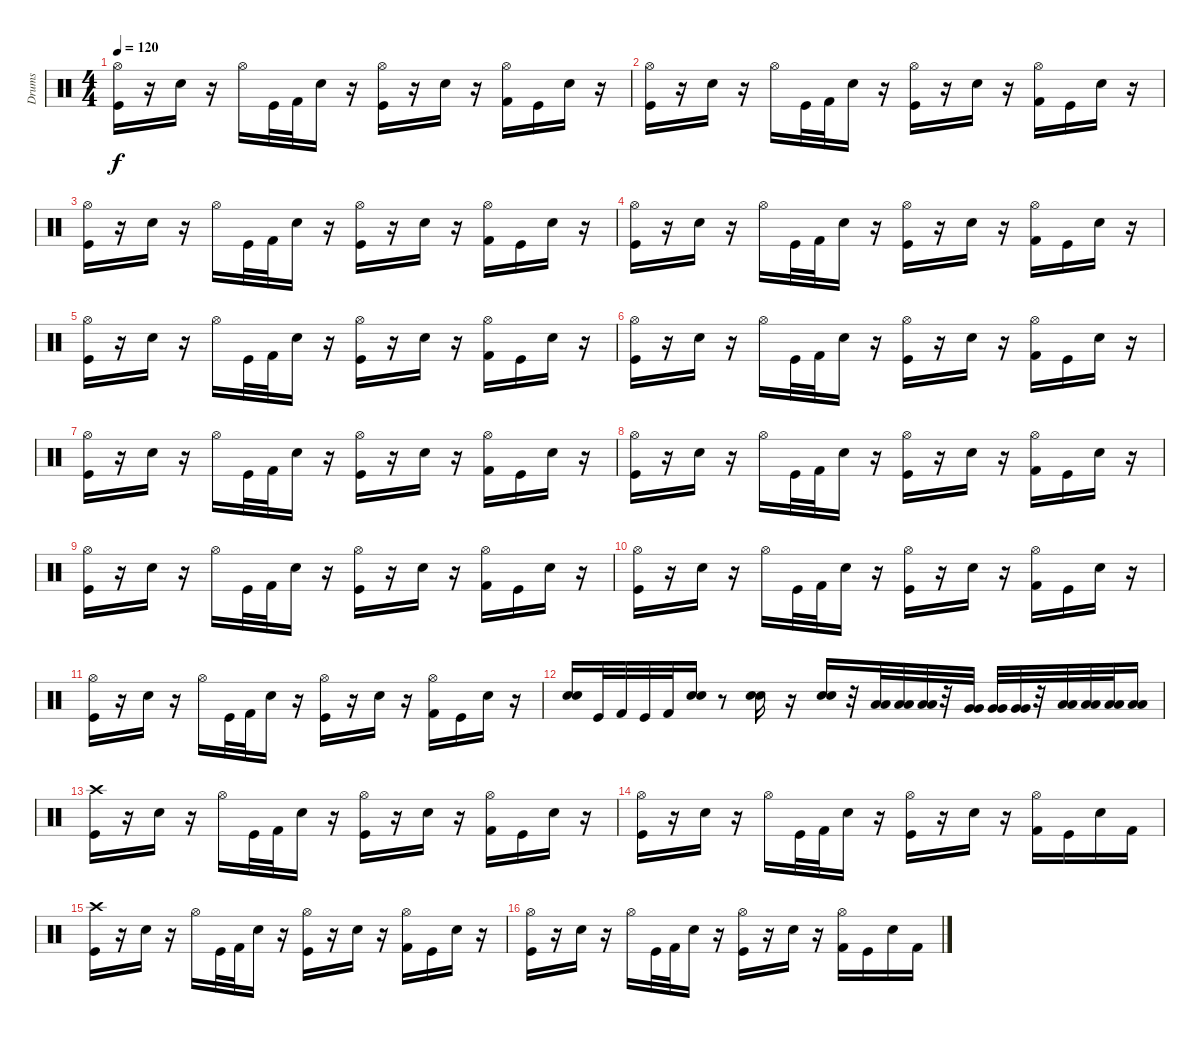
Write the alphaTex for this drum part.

\track ("Drums" "Drums") {instrument percussion}
\staff {score}
\articulation defaults
\ts (4 4)
\tempo 120
\clef neutral
\ks c
("Hi-Hat (open)" "Kick (hit)").16{dy f} r.16 "Electric Snare (hit)".16 r.16 "Hi-Hat (open)".16 "Kick (hit)".32 "Kick (hit) 2".32 "Electric Snare (hit)".16 r.16 ("Hi-Hat (open)" "Kick (hit)").16 r.16 "Electric Snare (hit)".16 r.16 ("Hi-Hat (open)" "Kick (hit) 2").16 "Kick (hit)".16 "Electric Snare (hit)".16 r.16 |
("Hi-Hat (open)" "Kick (hit)").16 r.16 "Electric Snare (hit)".16 r.16 "Hi-Hat (open)".16 "Kick (hit)".32 "Kick (hit) 2".32 "Electric Snare (hit)".16 r.16 ("Hi-Hat (open)" "Kick (hit)").16 r.16 "Electric Snare (hit)".16 r.16 ("Hi-Hat (open)" "Kick (hit) 2").16 "Kick (hit)".16 "Electric Snare (hit)".16 r.16 |
("Hi-Hat (open)" "Kick (hit)").16 r.16 "Electric Snare (hit)".16 r.16 "Hi-Hat (open)".16 "Kick (hit)".32 "Kick (hit) 2".32 "Electric Snare (hit)".16 r.16 ("Hi-Hat (open)" "Kick (hit)").16 r.16 "Electric Snare (hit)".16 r.16 ("Hi-Hat (open)" "Kick (hit) 2").16 "Kick (hit)".16 "Electric Snare (hit)".16 r.16 |
("Hi-Hat (open)" "Kick (hit)").16 r.16 "Electric Snare (hit)".16 r.16 "Hi-Hat (open)".16 "Kick (hit)".32 "Kick (hit) 2".32 "Electric Snare (hit)".16 r.16 ("Hi-Hat (open)" "Kick (hit)").16 r.16 "Electric Snare (hit)".16 r.16 ("Hi-Hat (open)" "Kick (hit) 2").16 "Kick (hit)".16 "Electric Snare (hit)".16 r.16 |
("Hi-Hat (open)" "Kick (hit)").16 r.16 "Electric Snare (hit)".16 r.16 "Hi-Hat (open)".16 "Kick (hit)".32 "Kick (hit) 2".32 "Electric Snare (hit)".16 r.16 ("Hi-Hat (open)" "Kick (hit)").16 r.16 "Electric Snare (hit)".16 r.16 ("Hi-Hat (open)" "Kick (hit) 2").16 "Kick (hit)".16 "Electric Snare (hit)".16 r.16 |
("Hi-Hat (open)" "Kick (hit)").16 r.16 "Electric Snare (hit)".16 r.16 "Hi-Hat (open)".16 "Kick (hit)".32 "Kick (hit) 2".32 "Electric Snare (hit)".16 r.16 ("Hi-Hat (open)" "Kick (hit)").16 r.16 "Electric Snare (hit)".16 r.16 ("Hi-Hat (open)" "Kick (hit) 2").16 "Kick (hit)".16 "Electric Snare (hit)".16 r.16 |
("Hi-Hat (open)" "Kick (hit)").16 r.16 "Electric Snare (hit)".16 r.16 "Hi-Hat (open)".16 "Kick (hit)".32 "Kick (hit) 2".32 "Electric Snare (hit)".16 r.16 ("Hi-Hat (open)" "Kick (hit)").16 r.16 "Electric Snare (hit)".16 r.16 ("Hi-Hat (open)" "Kick (hit) 2").16 "Kick (hit)".16 "Electric Snare (hit)".16 r.16 |
("Hi-Hat (open)" "Kick (hit)").16 r.16 "Electric Snare (hit)".16 r.16 "Hi-Hat (open)".16 "Kick (hit)".32 "Kick (hit) 2".32 "Electric Snare (hit)".16 r.16 ("Hi-Hat (open)" "Kick (hit)").16 r.16 "Electric Snare (hit)".16 r.16 ("Hi-Hat (open)" "Kick (hit) 2").16 "Kick (hit)".16 "Electric Snare (hit)".16 r.16 |
("Hi-Hat (open)" "Kick (hit)").16 r.16 "Electric Snare (hit)".16 r.16 "Hi-Hat (open)".16 "Kick (hit)".32 "Kick (hit) 2".32 "Electric Snare (hit)".16 r.16 ("Hi-Hat (open)" "Kick (hit)").16 r.16 "Electric Snare (hit)".16 r.16 ("Hi-Hat (open)" "Kick (hit) 2").16 "Kick (hit)".16 "Electric Snare (hit)".16 r.16 |
("Hi-Hat (open)" "Kick (hit)").16 r.16 "Electric Snare (hit)".16 r.16 "Hi-Hat (open)".16 "Kick (hit)".32 "Kick (hit) 2".32 "Electric Snare (hit)".16 r.16 ("Hi-Hat (open)" "Kick (hit)").16 r.16 "Electric Snare (hit)".16 r.16 ("Hi-Hat (open)" "Kick (hit) 2").16 "Kick (hit)".16 "Electric Snare (hit)".16 r.16 |
("Hi-Hat (open)" "Kick (hit)").16 r.16 "Electric Snare (hit)".16 r.16 "Hi-Hat (open)".16 "Kick (hit)".32 "Kick (hit) 2".32 "Electric Snare (hit)".16 r.16 ("Hi-Hat (open)" "Kick (hit)").16 r.16 "Electric Snare (hit)".16 r.16 ("Hi-Hat (open)" "Kick (hit) 2").16 "Kick (hit)".16 "Electric Snare (hit)".16 r.16 |
("Electric Snare (hit)" "Electric Snare (hit)").16 "Kick (hit)".32 "Kick (hit) 2".32 "Kick (hit)".32 "Kick (hit) 2".32 ("Electric Snare (hit)" "Electric Snare (hit)").16 r.8 ("Electric Snare (hit)" "Electric Snare (hit)").16 r.16 ("Electric Snare (hit)" "Electric Snare (hit)").16 r.32 ("Low Tom (hit)" "Low Tom (hit)").32 ("Low Tom (hit)" "Low Tom (hit)").32 ("Low Tom (hit)" "Low Tom (hit)").32 r.32 ("Very Low Tom (hit)" "Very Low Tom (hit)").32 ("Very Low Tom (hit)" "Very Low Tom (hit)").32 ("Very Low Tom (hit)" "Very Low Tom (hit)").32 r.32 ("Low Floor Tom (hit)" "Low Floor Tom (hit)").32 ("Low Floor Tom (hit)" "Low Floor Tom (hit)").32 ("Low Floor Tom (hit)" "Low Floor Tom (hit)").32 ("Low Floor Tom (hit)" "Low Floor Tom (hit)").16 |
("Crash high (hit)" "Kick (hit)").16 r.16 "Electric Snare (hit)".16 r.16 "Hi-Hat (open)".16 "Kick (hit)".32 "Kick (hit) 2".32 "Electric Snare (hit)".16 r.16 ("Hi-Hat (open)" "Kick (hit)").16 r.16 "Electric Snare (hit)".16 r.16 ("Hi-Hat (open)" "Kick (hit) 2").16 "Kick (hit)".16 "Electric Snare (hit)".16 r.16 |
("Hi-Hat (open)" "Kick (hit)").16 r.16 "Electric Snare (hit)".16 r.16 "Hi-Hat (open)".16 "Kick (hit)".32 "Kick (hit) 2".32 "Electric Snare (hit)".16 r.16 ("Hi-Hat (open)" "Kick (hit)").16 r.16 "Electric Snare (hit)".16 r.16 ("Hi-Hat (open)" "Kick (hit) 2").16 "Kick (hit)".16 "Electric Snare (hit)".16 "Kick (hit) 2".16 |
("Crash high (hit)" "Kick (hit)").16 r.16 "Electric Snare (hit)".16 r.16 "Hi-Hat (open)".16 "Kick (hit)".32 "Kick (hit) 2".32 "Electric Snare (hit)".16 r.16 ("Hi-Hat (open)" "Kick (hit)").16 r.16 "Electric Snare (hit)".16 r.16 ("Hi-Hat (open)" "Kick (hit) 2").16 "Kick (hit)".16 "Electric Snare (hit)".16 r.16 |
("Hi-Hat (open)" "Kick (hit)").16 r.16 "Electric Snare (hit)".16 r.16 "Hi-Hat (open)".16 "Kick (hit)".32 "Kick (hit) 2".32 "Electric Snare (hit)".16 r.16 ("Hi-Hat (open)" "Kick (hit)").16 r.16 "Electric Snare (hit)".16 r.16 ("Hi-Hat (open)" "Kick (hit) 2").16 "Kick (hit)".16 "Electric Snare (hit)".16 "Kick (hit) 2".16
